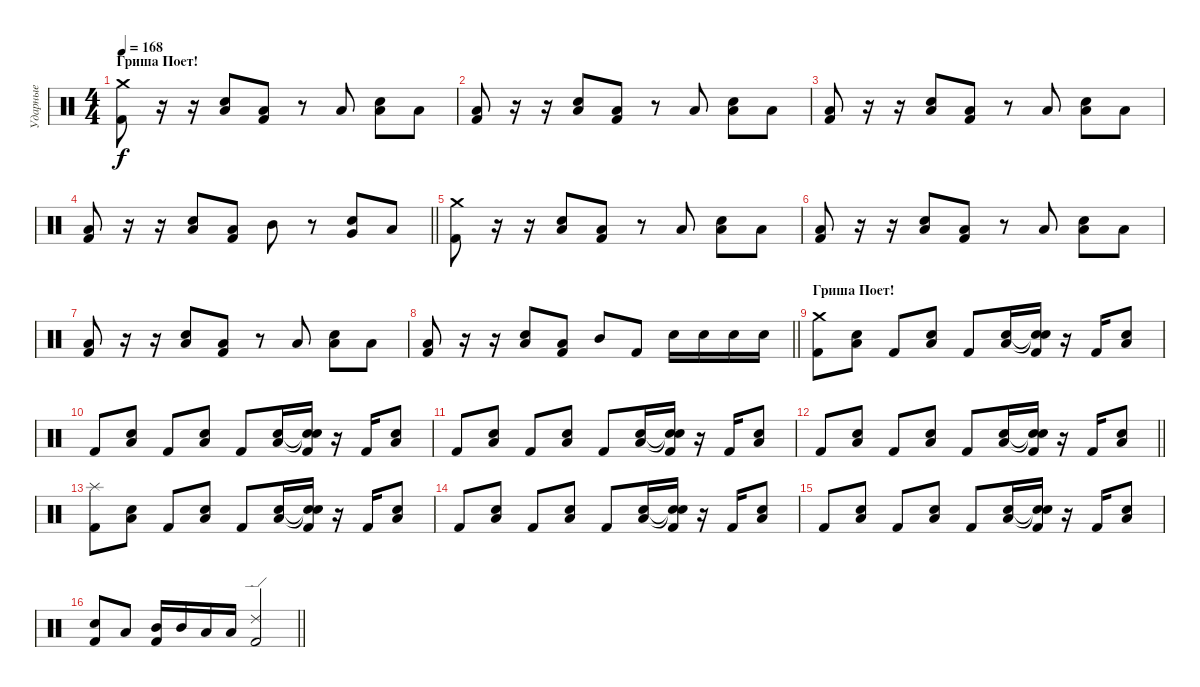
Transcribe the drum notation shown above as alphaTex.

\track ("Ударные" "Ударные") {instrument percussion}
\staff {score}
\articulation defaults
\ts (4 4)
\section ("" "Гриша Поет!")
\tempo 168
\clef neutral
\ks c
("Crash medium (hit)" "Kick (hit) 2").8{dy f} r.16 r.16 ("Low Tom (hit)" "Snare (hit) 2").8 ("Low Floor Tom (hit)" "Kick (hit) 2").8 r.8 "Low Floor Tom (hit)".8 ("Low Tom (hit)" "Snare (hit) 2").8 "Low Floor Tom (hit)".8 |
("Low Tom (hit)" "Kick (hit) 2").8 r.16 r.16 ("Low Tom (hit)" "Snare (hit) 2").8 ("Low Floor Tom (hit)" "Kick (hit) 2").8 r.8 "Low Floor Tom (hit)".8 ("Low Tom (hit)" "Snare (hit) 2").8 "Low Floor Tom (hit)".8 |
("Low Tom (hit)" "Kick (hit) 2").8 r.16 r.16 ("Low Tom (hit)" "Snare (hit) 2").8 ("Low Floor Tom (hit)" "Kick (hit) 2").8 r.8 "Low Floor Tom (hit)".8 ("Low Tom (hit)" "Snare (hit) 2").8 "Low Floor Tom (hit)".8 |
\barLineRight lightlight
("Low Tom (hit)" "Kick (hit) 2").8 r.16 r.16 ("Low Tom (hit)" "Snare (hit) 2").8 ("Low Floor Tom (hit)" "Kick (hit) 2").8 "Mid Tom (hit)".8 r.8 ("Very Low Tom (hit)" "Snare (hit) 2").8 "Low Floor Tom (hit)".8 |
("Crash medium (hit)" "Kick (hit) 2").8 r.16 r.16 ("Low Tom (hit)" "Snare (hit) 2").8 ("Low Floor Tom (hit)" "Kick (hit) 2").8 r.8 "Low Floor Tom (hit)".8 ("Low Tom (hit)" "Snare (hit) 2").8 "Low Floor Tom (hit)".8 |
("Low Tom (hit)" "Kick (hit) 2").8 r.16 r.16 ("Low Tom (hit)" "Snare (hit) 2").8 ("Low Floor Tom (hit)" "Kick (hit) 2").8 r.8 "Low Floor Tom (hit)".8 ("Low Tom (hit)" "Snare (hit) 2").8 "Low Floor Tom (hit)".8 |
("Low Tom (hit)" "Kick (hit) 2").8 r.16 r.16 ("Low Tom (hit)" "Snare (hit) 2").8 ("Low Floor Tom (hit)" "Kick (hit) 2").8 r.8 "Low Floor Tom (hit)".8 ("Low Tom (hit)" "Snare (hit) 2").8 "Low Floor Tom (hit)".8 |
\barLineRight lightlight
("Low Tom (hit)" "Kick (hit) 2").8 r.16 r.16 ("Low Tom (hit)" "Snare (hit) 2").8 ("Low Floor Tom (hit)" "Kick (hit) 2").8 "Mid Tom (hit)".8 "Kick (hit) 2".8 "Snare (hit) 2".16 "Snare (hit) 2".16 "Snare (hit) 2".16 "Snare (hit) 2".16 |
\section ("" "Гриша Поет!")
("Crash medium (hit)" "Kick (hit) 2").8 ("Low Floor Tom (hit)" "Snare (hit) 2").8 "Kick (hit) 2".8 ("Low Floor Tom (hit)" "Snare (hit) 2").8 "Kick (hit) 2".8 ("Low Floor Tom (hit)" "Snare (hit) 2").16 ("Snare (hit)"{t} "Snare (hit)"{t} "Kick (hit) 2").16 r.16 "Kick (hit) 2".16 ("Low Floor Tom (hit)" "Snare (hit) 2").8 |
"Kick (hit) 2".8 ("Low Floor Tom (hit)" "Snare (hit) 2").8 "Kick (hit) 2".8 ("Low Floor Tom (hit)" "Snare (hit) 2").8 "Kick (hit) 2".8 ("Low Floor Tom (hit)" "Snare (hit) 2").16 ("Snare (hit)"{t} "Snare (hit)"{t} "Kick (hit) 2").16 r.16 "Kick (hit) 2".16 ("Low Floor Tom (hit)" "Snare (hit) 2").8 |
"Kick (hit) 2".8 ("Low Floor Tom (hit)" "Snare (hit) 2").8 "Kick (hit) 2".8 ("Low Floor Tom (hit)" "Snare (hit) 2").8 "Kick (hit) 2".8 ("Low Floor Tom (hit)" "Snare (hit) 2").16 ("Snare (hit)"{t} "Snare (hit)"{t} "Kick (hit) 2").16 r.16 "Kick (hit) 2".16 ("Low Floor Tom (hit)" "Snare (hit) 2").8 |
\barLineRight lightlight "Kick (hit) 2".8
("Low Floor Tom (hit)" "Snare (hit) 2").8 "Kick (hit) 2".8 ("Low Floor Tom (hit)" "Snare (hit) 2").8 "Kick (hit) 2".8 ("Low Floor Tom (hit)" "Snare (hit) 2").16 ("Snare (hit)"{t} "Snare (hit)"{t} "Kick (hit) 2").16 r.16 "Kick (hit) 2".16 ("Low Floor Tom (hit)" "Snare (hit) 2").8 |
("Splash (hit)" "Kick (hit) 2").8 ("Low Floor Tom (hit)" "Snare (hit) 2").8 "Kick (hit) 2".8 ("Low Floor Tom (hit)" "Snare (hit) 2").8 "Kick (hit) 2".8 ("Low Floor Tom (hit)" "Snare (hit) 2").16 ("Snare (hit)"{t} "Snare (hit)"{t} "Kick (hit) 2").16 r.16 "Kick (hit) 2".16 ("Low Floor Tom (hit)" "Snare (hit) 2").8 |
"Kick (hit) 2".8 ("Low Floor Tom (hit)" "Snare (hit) 2").8 "Kick (hit) 2".8 ("Low Floor Tom (hit)" "Snare (hit) 2").8 "Kick (hit) 2".8 ("Low Floor Tom (hit)" "Snare (hit) 2").16 ("Snare (hit)"{t} "Snare (hit)"{t} "Kick (hit) 2").16 r.16 "Kick (hit) 2".16 ("Low Floor Tom (hit)" "Snare (hit) 2").8 |
"Kick (hit) 2".8 ("Low Floor Tom (hit)" "Snare (hit) 2").8 "Kick (hit) 2".8 ("Low Floor Tom (hit)" "Snare (hit) 2").8 "Kick (hit) 2".8 ("Low Floor Tom (hit)" "Snare (hit) 2").16 ("Snare (hit)"{t} "Snare (hit)"{t} "Kick (hit) 2").16 r.16 "Kick (hit) 2".16 ("Low Floor Tom (hit)" "Snare (hit) 2").8 |
\barLineRight lightlight
("Snare (hit) 2" "Kick (hit) 2").8 "Low Tom (hit)".8 ("Mid Tom (hit)" "Kick (hit) 2").16 "Mid Tom (hit)".16 "Low Tom (hit)".16 "Low Tom (hit)".16 ("Ride (edge) 2" "Kick (hit) 2").2
